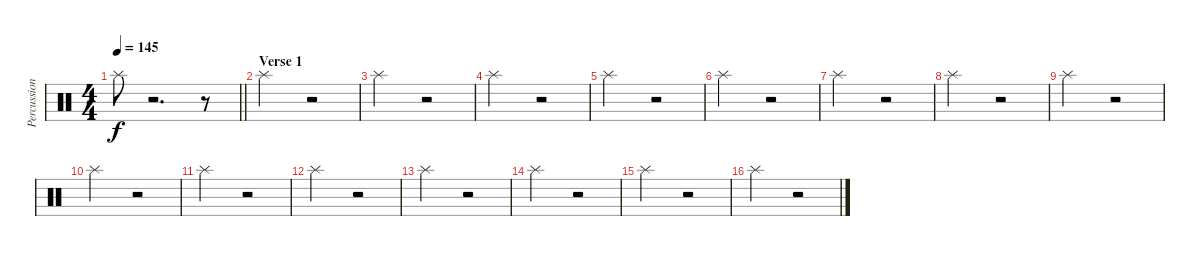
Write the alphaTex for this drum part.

\track ("Percussion 2" "Percussion") {instrument percussion}
\staff {score}
\articulation defaults
\ts (4 4)
\tempo 145
\clef neutral
\barLineRight lightlight
\ks c "Splash (hit)".8{dy f}
r.2{d} r.8 |
\section ("" "Verse 1")
"Splash (hit)".2 r.2 |
"Splash (hit)".2 r.2 |
"Splash (hit)".2 r.2 |
"Splash (hit)".2 r.2 |
"Splash (hit)".2 r.2 |
"Splash (hit)".2 r.2 |
"Splash (hit)".2 r.2 |
"Splash (hit)".2 r.2 |
"Splash (hit)".2 r.2 |
"Splash (hit)".2 r.2 |
"Splash (hit)".2 r.2 |
"Splash (hit)".2 r.2 |
"Splash (hit)".2 r.2 |
"Splash (hit)".2 r.2 |
"Splash (hit)".2 r.2
